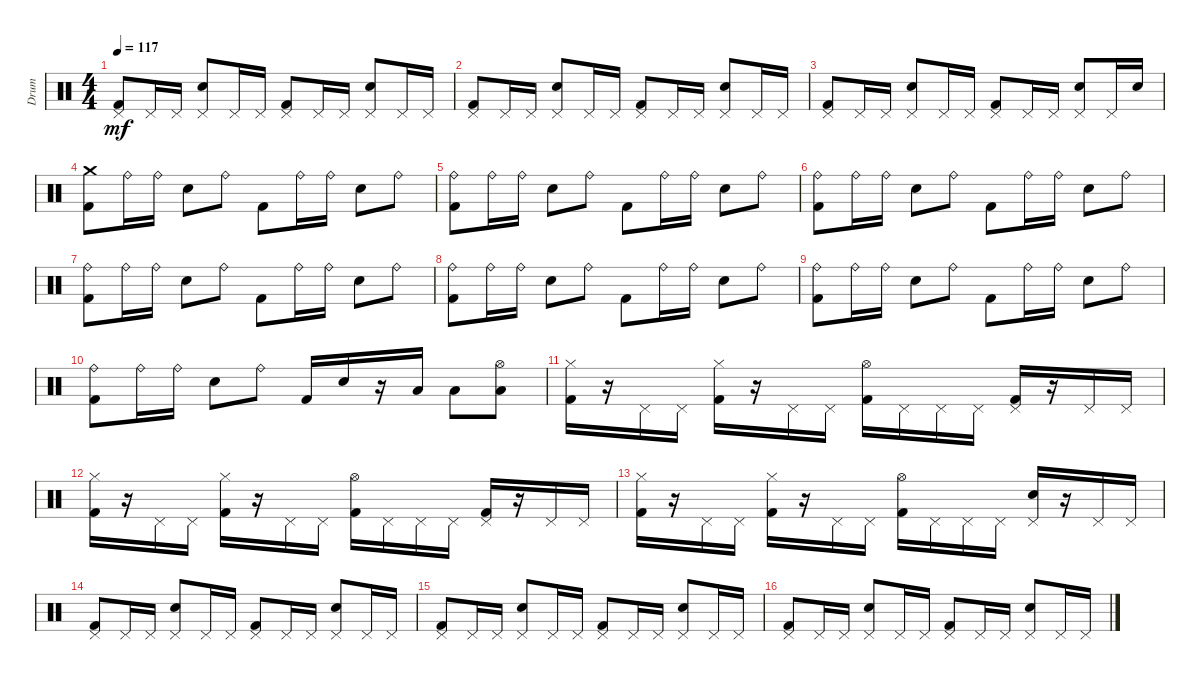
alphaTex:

\track ("Drum" "Drum") {instrument percussion}
\staff {score}
\articulation defaults
\ts (4 4)
\tempo 117
\clef neutral
\ks c
("Pedal Hi-Hat (hit)" "Kick (hit) 2").8{dy mf} "Pedal Hi-Hat (hit)".16 "Pedal Hi-Hat (hit)".16 ("Snare (hit) 2" "Pedal Hi-Hat (hit)").8 "Pedal Hi-Hat (hit)".16 "Pedal Hi-Hat (hit)".16 ("Kick (hit) 2" "Pedal Hi-Hat (hit)").8 "Pedal Hi-Hat (hit)".16 "Pedal Hi-Hat (hit)".16 ("Pedal Hi-Hat (hit)" "Snare (hit) 2").8 "Pedal Hi-Hat (hit)".16 "Pedal Hi-Hat (hit)".16 |
("Pedal Hi-Hat (hit)" "Kick (hit) 2").8 "Pedal Hi-Hat (hit)".16 "Pedal Hi-Hat (hit)".16 ("Snare (hit) 2" "Pedal Hi-Hat (hit)").8 "Pedal Hi-Hat (hit)".16 "Pedal Hi-Hat (hit)".16 ("Kick (hit) 2" "Pedal Hi-Hat (hit)").8 "Pedal Hi-Hat (hit)".16 "Pedal Hi-Hat (hit)".16 ("Pedal Hi-Hat (hit)" "Snare (hit) 2").8 "Pedal Hi-Hat (hit)".16 "Pedal Hi-Hat (hit)".16 |
("Pedal Hi-Hat (hit)" "Kick (hit) 2").8 "Pedal Hi-Hat (hit)".16 "Pedal Hi-Hat (hit)".16 ("Snare (hit) 2" "Pedal Hi-Hat (hit)").8 "Pedal Hi-Hat (hit)".16 "Pedal Hi-Hat (hit)".16 ("Pedal Hi-Hat (hit)" "Kick (hit) 2").8 "Pedal Hi-Hat (hit)".16 "Pedal Hi-Hat (hit)".16 ("Snare (hit) 2" "Pedal Hi-Hat (hit)").8 "Pedal Hi-Hat (hit)".16 "Snare (hit) 2".16 |
("Crash medium (hit)" "Kick (hit) 2").8 "Ride (bell)".16 "Ride (bell)".16 "Snare (hit) 2".8 "Ride (bell)".8 "Kick (hit) 2".8 "Ride (bell)".16 "Ride (bell)".16 "Snare (hit) 2".8 "Ride (bell)".8 |
("Ride (bell)" "Kick (hit) 2").8 "Ride (bell)".16 "Ride (bell)".16 "Snare (hit) 2".8 "Ride (bell)".8 "Kick (hit) 2".8 "Ride (bell)".16 "Ride (bell)".16 "Snare (hit) 2".8 "Ride (bell)".8 |
("Kick (hit) 2" "Ride (bell)").8 "Ride (bell)".16 "Ride (bell)".16 "Snare (hit) 2".8 "Ride (bell)".8 "Kick (hit) 2".8 "Ride (bell)".16 "Ride (bell)".16 "Snare (hit) 2".8 "Ride (bell)".8 |
("Kick (hit) 2" "Ride (bell)").8 "Ride (bell)".16 "Ride (bell)".16 "Snare (hit) 2".8 "Ride (bell)".8 "Kick (hit) 2".8 "Ride (bell)".16 "Ride (bell)".16 "Snare (hit) 2".8 "Ride (bell)".8 |
("Ride (bell)" "Kick (hit) 2").8 "Ride (bell)".16 "Ride (bell)".16 "Snare (hit) 2".8 "Ride (bell)".8 "Kick (hit) 2".8 "Ride (bell)".16 "Ride (bell)".16 "Snare (hit) 2".8 "Ride (bell)".8 |
("Kick (hit) 2" "Ride (bell)").8 "Ride (bell)".16 "Ride (bell)".16 "Snare (hit) 2".8 "Ride (bell)".8 "Kick (hit) 2".8 "Ride (bell)".16 "Ride (bell)".16 "Snare (hit) 2".8 "Ride (bell)".8 |
("Ride (bell)" "Kick (hit) 2").8 "Ride (bell)".16 "Ride (bell)".16 "Snare (hit) 2".8 "Ride (bell)".8 "Kick (hit) 2".16 "Snare (hit) 2".16 r.16 "Low Tom (hit)".16 "Low Tom (hit)".8 ("Hi-Hat (open)" "Low Tom (hit)").8 |
("Hi-Hat (closed)" "Kick (hit) 2").16 r.16 "Pedal Hi-Hat (hit)".16 "Pedal Hi-Hat (hit)".16 ("Kick (hit) 2" "Hi-Hat (closed)").16 r.16 "Pedal Hi-Hat (hit)".16 "Pedal Hi-Hat (hit)".16 ("Kick (hit) 2" "Hi-Hat (open)").16 "Pedal Hi-Hat (hit)".16 "Pedal Hi-Hat (hit)".16 "Pedal Hi-Hat (hit)".16 ("Pedal Hi-Hat (hit)" "Kick (hit) 2").16 r.16 "Pedal Hi-Hat (hit)".16 "Pedal Hi-Hat (hit)".16 |
("Hi-Hat (closed)" "Kick (hit) 2").16 r.16 "Pedal Hi-Hat (hit)".16 "Pedal Hi-Hat (hit)".16 ("Hi-Hat (closed)" "Kick (hit) 2").16 r.16 "Pedal Hi-Hat (hit)".16 "Pedal Hi-Hat (hit)".16 ("Hi-Hat (open)" "Kick (hit) 2").16 "Pedal Hi-Hat (hit)".16 "Pedal Hi-Hat (hit)".16 "Pedal Hi-Hat (hit)".16 ("Pedal Hi-Hat (hit)" "Kick (hit) 2").16 r.16 "Pedal Hi-Hat (hit)".16 "Pedal Hi-Hat (hit)".16 |
("Hi-Hat (closed)" "Kick (hit) 2").16 r.16 "Pedal Hi-Hat (hit)".16 "Pedal Hi-Hat (hit)".16 ("Kick (hit) 2" "Hi-Hat (closed)").16 r.16 "Pedal Hi-Hat (hit)".16 "Pedal Hi-Hat (hit)".16 ("Hi-Hat (open)" "Kick (hit) 2").16 "Pedal Hi-Hat (hit)".16 "Pedal Hi-Hat (hit)".16 "Pedal Hi-Hat (hit)".16 ("Pedal Hi-Hat (hit)" "Snare (hit) 2").16 r.16 "Pedal Hi-Hat (hit)".16 "Pedal Hi-Hat (hit)".16 |
("Pedal Hi-Hat (hit)" "Kick (hit) 2").8 "Pedal Hi-Hat (hit)".16 "Pedal Hi-Hat (hit)".16 ("Pedal Hi-Hat (hit)" "Snare (hit) 2").8 "Pedal Hi-Hat (hit)".16 "Pedal Hi-Hat (hit)".16 ("Pedal Hi-Hat (hit)" "Kick (hit) 2").8 "Pedal Hi-Hat (hit)".16 "Pedal Hi-Hat (hit)".16 ("Snare (hit) 2" "Pedal Hi-Hat (hit)").8 "Pedal Hi-Hat (hit)".16 "Pedal Hi-Hat (hit)".16 |
("Pedal Hi-Hat (hit)" "Kick (hit) 2").8 "Pedal Hi-Hat (hit)".16 "Pedal Hi-Hat (hit)".16 ("Pedal Hi-Hat (hit)" "Snare (hit) 2").8 "Pedal Hi-Hat (hit)".16 "Pedal Hi-Hat (hit)".16 ("Pedal Hi-Hat (hit)" "Kick (hit) 2").8 "Pedal Hi-Hat (hit)".16 "Pedal Hi-Hat (hit)".16 ("Snare (hit) 2" "Pedal Hi-Hat (hit)").8 "Pedal Hi-Hat (hit)".16 "Pedal Hi-Hat (hit)".16 |
("Pedal Hi-Hat (hit)" "Kick (hit) 2").8 "Pedal Hi-Hat (hit)".16 "Pedal Hi-Hat (hit)".16 ("Pedal Hi-Hat (hit)" "Snare (hit) 2").8 "Pedal Hi-Hat (hit)".16 "Pedal Hi-Hat (hit)".16 ("Pedal Hi-Hat (hit)" "Kick (hit) 2").8 "Pedal Hi-Hat (hit)".16 "Pedal Hi-Hat (hit)".16 ("Snare (hit) 2" "Pedal Hi-Hat (hit)").8 "Pedal Hi-Hat (hit)".16 "Pedal Hi-Hat (hit)".16
